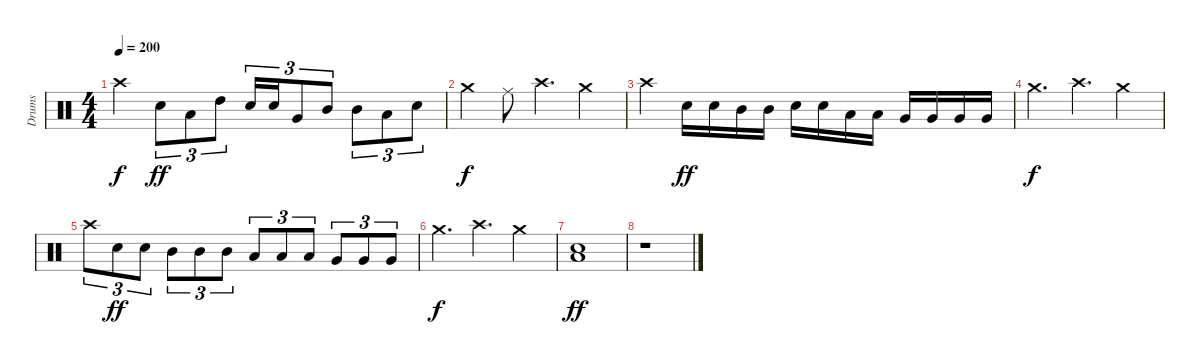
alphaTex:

\track ("Drums" "Drums") {instrument percussion}
\staff {score}
\articulation defaults
\ts (4 4)
\tempo 200
\clef neutral
\ks c "Crash high (hit)".4{dy f} "Snare (hit) 2".8{tu (3 2) dy ff} "Low Tom (hit)".8{tu (3 2)} "High Tom (hit)".8{tu (3 2)} "Snare (hit) 2".16{tu (3 2)} "Snare (hit) 2".16{tu (3 2)} "Very Low Tom (hit)".8{tu (3 2)} "Mid Tom (hit)".8{tu (3 2)} "Mid Tom (hit)".8{tu (3 2)} "Low Floor Tom (hit)".8{tu (3 2)} "Snare (hit) 2".8{tu (3 2)}
|
"Crash medium (hit)".4{dy f} "Ride (middle)".8 "Crash high (hit)".4{d} "Crash medium (hit)".4 |
"Crash high (hit)".4 "Snare (hit) 2".16{dy ff} "Snare (hit) 2".16 "Mid Tom (hit)".16 "Mid Tom (hit)".16 "Snare (hit) 2".16 "Snare (hit) 2".16 "Low Tom (hit)".16 "Low Tom (hit)".16 "Very Low Tom (hit)".16 "Very Low Tom (hit)".16 "Very Low Tom (hit)".16 "Very Low Tom (hit)".16 |
"Crash medium (hit)".4{d dy f} "Crash high (hit)".4{d} "Crash medium (hit)".4 |
"Crash high (hit)".8{tu (3 2)} "Snare (hit) 2".8{tu (3 2) dy ff} "Snare (hit) 2".8{tu (3 2)} "Mid Tom (hit)".8{tu (3 2)} "Mid Tom (hit)".8{tu (3 2)} "Mid Tom (hit)".8{tu (3 2)} "Low Tom (hit)".8{tu (3 2)} "Low Tom (hit)".8{tu (3 2)} "Low Tom (hit)".8{tu (3 2)} "Very Low Tom (hit)".8{tu (3 2)} "Very Low Tom (hit)".8{tu (3 2)} "Very Low Tom (hit)".8{tu (3 2)} |
"Crash medium (hit)".4{d dy f} "Crash high (hit)".4{d} "Crash medium (hit)".4 |
("Snare (hit) 2" "Low Floor Tom (hit)").1{dy ff} |
r.1
